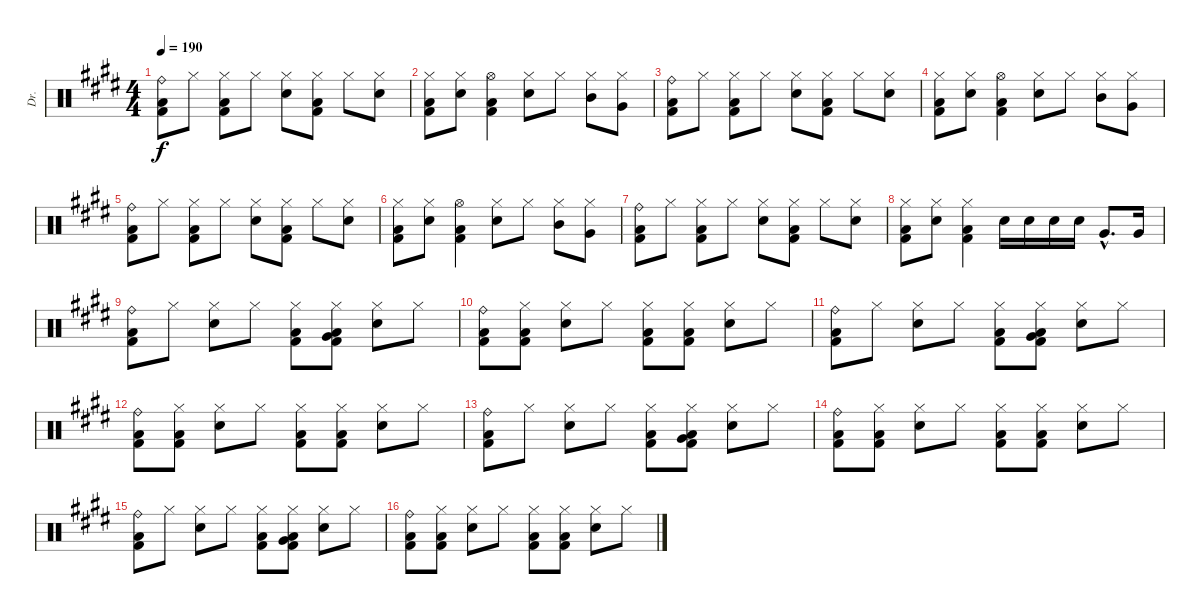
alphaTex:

\track ("Dr." "Dr.") {instrument percussion}
\staff {score}
\articulation defaults
\ts (4 4)
\tempo 190
\clef neutral
\ks e
("Ride (bell)" "Low Floor Tom (hit)" "Kick (hit) 2").8{dy f} "Hi-Hat (closed)".8 ("Hi-Hat (closed)" "Low Floor Tom (hit)" "Kick (hit) 2").8 "Hi-Hat (closed)".8 ("Electric Snare (hit)" "Hi-Hat (closed)").8 ("Hi-Hat (closed)" "Low Floor Tom (hit)" "Kick (hit) 2").8 "Hi-Hat (closed)".8 ("Electric Snare (hit)" "Hi-Hat (closed)").8 |
("Hi-Hat (closed)" "Low Floor Tom (hit)" "Kick (hit) 2").8 ("Electric Snare (hit)" "Hi-Hat (closed)").8 ("Hi-Hat (open)" "Low Floor Tom (hit)" "Kick (hit) 2").4 ("Electric Snare (hit)" "Hi-Hat (closed)").8 "Hi-Hat (closed)".8 ("Mid Tom (hit)" "Hi-Hat (closed)").8 ("Very Low Tom (hit)" "Hi-Hat (closed)").8 |
("Ride (bell)" "Low Floor Tom (hit)" "Kick (hit) 2").8 "Hi-Hat (closed)".8 ("Hi-Hat (closed)" "Low Floor Tom (hit)" "Kick (hit) 2").8 "Hi-Hat (closed)".8 ("Electric Snare (hit)" "Hi-Hat (closed)").8 ("Hi-Hat (closed)" "Low Floor Tom (hit)" "Kick (hit) 2").8 "Hi-Hat (closed)".8 ("Electric Snare (hit)" "Hi-Hat (closed)").8 |
("Hi-Hat (closed)" "Low Floor Tom (hit)" "Kick (hit) 2").8 ("Electric Snare (hit)" "Hi-Hat (closed)").8 ("Hi-Hat (open)" "Low Floor Tom (hit)" "Kick (hit) 2").4 ("Electric Snare (hit)" "Hi-Hat (closed)").8 "Hi-Hat (closed)".8 ("Mid Tom (hit)" "Hi-Hat (closed)").8 ("Very Low Tom (hit)" "Hi-Hat (closed)").8 |
("Ride (bell)" "Low Floor Tom (hit)" "Kick (hit) 2").8 "Hi-Hat (closed)".8 ("Hi-Hat (closed)" "Low Floor Tom (hit)" "Kick (hit) 2").8 "Hi-Hat (closed)".8 ("Electric Snare (hit)" "Hi-Hat (closed)").8 ("Hi-Hat (closed)" "Low Floor Tom (hit)" "Kick (hit) 2").8 "Hi-Hat (closed)".8 ("Electric Snare (hit)" "Hi-Hat (closed)").8 |
("Hi-Hat (closed)" "Low Floor Tom (hit)" "Kick (hit) 2").8 ("Electric Snare (hit)" "Hi-Hat (closed)").8 ("Hi-Hat (open)" "Low Floor Tom (hit)" "Kick (hit) 2").4 ("Electric Snare (hit)" "Hi-Hat (closed)").8 "Hi-Hat (closed)".8 ("Mid Tom (hit)" "Hi-Hat (closed)").8 ("Very Low Tom (hit)" "Hi-Hat (closed)").8 |
("Ride (bell)" "Low Floor Tom (hit)" "Kick (hit) 2").8 "Hi-Hat (closed)".8 ("Hi-Hat (closed)" "Low Floor Tom (hit)" "Kick (hit) 2").8 "Hi-Hat (closed)".8 ("Electric Snare (hit)" "Hi-Hat (closed)").8 ("Hi-Hat (closed)" "Low Floor Tom (hit)" "Kick (hit) 2").8 "Hi-Hat (closed)".8 ("Electric Snare (hit)" "Hi-Hat (closed)").8 |
("Hi-Hat (closed)" "Low Floor Tom (hit)" "Kick (hit) 2").8 ("Electric Snare (hit)" "Hi-Hat (closed)").8 ("Hi-Hat (closed)" "Low Floor Tom (hit)" "Kick (hit) 2").4 "Electric Snare (hit)".16 "Electric Snare (hit)".16 "Electric Snare (hit)".16 "Electric Snare (hit)".16 "Very Low Tom (hit)"{hac}.8{d} "Very Low Tom (hit)".16 |
("Ride (bell)" "Low Floor Tom (hit)" "Kick (hit) 2").8 "Hi-Hat (closed)".8 ("Electric Snare (hit)" "Hi-Hat (closed)").8 "Hi-Hat (closed)".8 ("Hi-Hat (closed)" "Low Floor Tom (hit)" "Kick (hit) 2").8 ("Hi-Hat (closed)" "Low Floor Tom (hit)" "Kick (hit) 2" "Very Low Tom (hit)").8 ("Electric Snare (hit)" "Hi-Hat (closed)").8 "Hi-Hat (closed)".8 |
("Ride (bell)" "Low Floor Tom (hit)" "Kick (hit) 2").8 ("Hi-Hat (closed)" "Low Floor Tom (hit)" "Kick (hit) 2").8 ("Electric Snare (hit)" "Hi-Hat (closed)").8 "Hi-Hat (closed)".8 ("Hi-Hat (closed)" "Low Floor Tom (hit)" "Kick (hit) 2").8 ("Hi-Hat (closed)" "Low Floor Tom (hit)" "Kick (hit) 2").8 ("Electric Snare (hit)" "Hi-Hat (closed)").8 "Hi-Hat (closed)".8 |
("Ride (bell)" "Low Floor Tom (hit)" "Kick (hit) 2").8 "Hi-Hat (closed)".8 ("Electric Snare (hit)" "Hi-Hat (closed)").8 "Hi-Hat (closed)".8 ("Hi-Hat (closed)" "Low Floor Tom (hit)" "Kick (hit) 2").8 ("Hi-Hat (closed)" "Low Floor Tom (hit)" "Kick (hit) 2" "Very Low Tom (hit)").8 ("Electric Snare (hit)" "Hi-Hat (closed)").8 "Hi-Hat (closed)".8 |
("Ride (bell)" "Low Floor Tom (hit)" "Kick (hit) 2").8 ("Hi-Hat (closed)" "Low Floor Tom (hit)" "Kick (hit) 2").8 ("Electric Snare (hit)" "Hi-Hat (closed)").8 "Hi-Hat (closed)".8 ("Hi-Hat (closed)" "Low Floor Tom (hit)" "Kick (hit) 2").8 ("Hi-Hat (closed)" "Low Floor Tom (hit)" "Kick (hit) 2").8 ("Electric Snare (hit)" "Hi-Hat (closed)").8 "Hi-Hat (closed)".8 |
("Ride (bell)" "Low Floor Tom (hit)" "Kick (hit) 2").8 "Hi-Hat (closed)".8 ("Electric Snare (hit)" "Hi-Hat (closed)").8 "Hi-Hat (closed)".8 ("Hi-Hat (closed)" "Low Floor Tom (hit)" "Kick (hit) 2").8 ("Hi-Hat (closed)" "Low Floor Tom (hit)" "Kick (hit) 2" "Very Low Tom (hit)").8 ("Electric Snare (hit)" "Hi-Hat (closed)").8 "Hi-Hat (closed)".8 |
("Ride (bell)" "Low Floor Tom (hit)" "Kick (hit) 2").8 ("Hi-Hat (closed)" "Low Floor Tom (hit)" "Kick (hit) 2").8 ("Electric Snare (hit)" "Hi-Hat (closed)").8 "Hi-Hat (closed)".8 ("Hi-Hat (closed)" "Low Floor Tom (hit)" "Kick (hit) 2").8 ("Hi-Hat (closed)" "Low Floor Tom (hit)" "Kick (hit) 2").8 ("Electric Snare (hit)" "Hi-Hat (closed)").8 "Hi-Hat (closed)".8 |
("Ride (bell)" "Low Floor Tom (hit)" "Kick (hit) 2").8 "Hi-Hat (closed)".8 ("Electric Snare (hit)" "Hi-Hat (closed)").8 "Hi-Hat (closed)".8 ("Hi-Hat (closed)" "Low Floor Tom (hit)" "Kick (hit) 2").8 ("Hi-Hat (closed)" "Low Floor Tom (hit)" "Kick (hit) 2" "Very Low Tom (hit)").8 ("Electric Snare (hit)" "Hi-Hat (closed)").8 "Hi-Hat (closed)".8 |
("Ride (bell)" "Low Floor Tom (hit)" "Kick (hit) 2").8 ("Hi-Hat (closed)" "Low Floor Tom (hit)" "Kick (hit) 2").8 ("Electric Snare (hit)" "Hi-Hat (closed)").8 "Hi-Hat (closed)".8 ("Hi-Hat (closed)" "Low Floor Tom (hit)" "Kick (hit) 2").8 ("Hi-Hat (closed)" "Low Floor Tom (hit)" "Kick (hit) 2").8 ("Electric Snare (hit)" "Hi-Hat (closed)").8 "Hi-Hat (closed)".8
